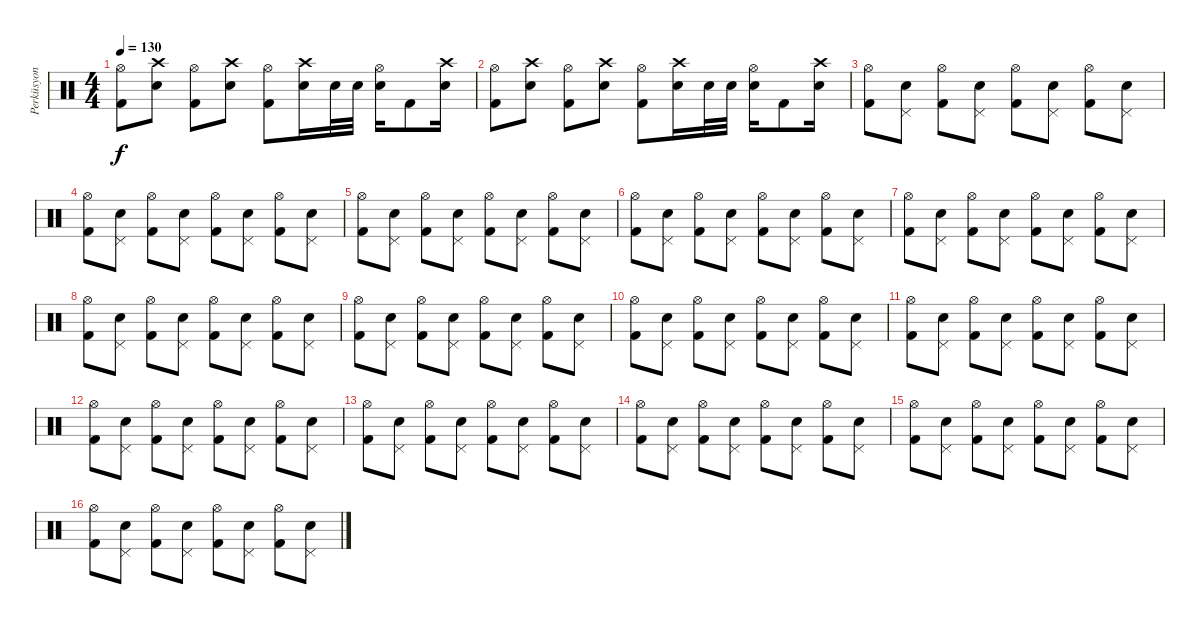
\track ("Perküsyon" "Perküsyon") {instrument percussion}
\staff {score}
\articulation defaults
\ts (4 4)
\tempo 130
\clef neutral
\ks c
("Hi-Hat (open)" "Kick (hit) 2").8{dy f} ("Crash high (hit)" "Electric Snare (hit)").8 ("Hi-Hat (open)" "Kick (hit) 2").8 ("Crash high (hit)" "Electric Snare (hit)").8 ("Hi-Hat (open)" "Kick (hit) 2").8 ("Crash high (hit)" "Electric Snare (hit)").16 "Electric Snare (hit)".32 "Electric Snare (hit)".32 ("Hi-Hat (open)" "Electric Snare (hit)").16 "Kick (hit) 2".8 ("Crash high (hit)" "Electric Snare (hit)").16 |
("Hi-Hat (open)" "Kick (hit) 2").8 ("Crash high (hit)" "Electric Snare (hit)").8 ("Hi-Hat (open)" "Kick (hit) 2").8 ("Crash high (hit)" "Electric Snare (hit)").8 ("Hi-Hat (open)" "Kick (hit) 2").8 ("Crash high (hit)" "Electric Snare (hit)").16 "Electric Snare (hit)".32 "Electric Snare (hit)".32 ("Hi-Hat (open)" "Electric Snare (hit)").16 "Kick (hit) 2".8 ("Crash high (hit)" "Electric Snare (hit)").16 |
("Hi-Hat (open)" "Kick (hit) 2").8 ("Pedal Hi-Hat (hit)" "Electric Snare (hit)").8 ("Hi-Hat (open)" "Kick (hit) 2").8 ("Pedal Hi-Hat (hit)" "Electric Snare (hit)").8 ("Hi-Hat (open)" "Kick (hit) 2").8 ("Pedal Hi-Hat (hit)" "Electric Snare (hit)").8 ("Hi-Hat (open)" "Kick (hit) 2").8 ("Pedal Hi-Hat (hit)" "Electric Snare (hit)").8 |
("Hi-Hat (open)" "Kick (hit) 2").8 ("Pedal Hi-Hat (hit)" "Electric Snare (hit)").8 ("Hi-Hat (open)" "Kick (hit) 2").8 ("Pedal Hi-Hat (hit)" "Electric Snare (hit)").8 ("Hi-Hat (open)" "Kick (hit) 2").8 ("Pedal Hi-Hat (hit)" "Electric Snare (hit)").8 ("Hi-Hat (open)" "Kick (hit) 2").8 ("Pedal Hi-Hat (hit)" "Electric Snare (hit)").8 |
("Hi-Hat (open)" "Kick (hit) 2").8 ("Pedal Hi-Hat (hit)" "Electric Snare (hit)").8 ("Hi-Hat (open)" "Kick (hit) 2").8 ("Pedal Hi-Hat (hit)" "Electric Snare (hit)").8 ("Hi-Hat (open)" "Kick (hit) 2").8 ("Pedal Hi-Hat (hit)" "Electric Snare (hit)").8 ("Hi-Hat (open)" "Kick (hit) 2").8 ("Pedal Hi-Hat (hit)" "Electric Snare (hit)").8 |
("Hi-Hat (open)" "Kick (hit) 2").8 ("Pedal Hi-Hat (hit)" "Electric Snare (hit)").8 ("Hi-Hat (open)" "Kick (hit) 2").8 ("Pedal Hi-Hat (hit)" "Electric Snare (hit)").8 ("Hi-Hat (open)" "Kick (hit) 2").8 ("Pedal Hi-Hat (hit)" "Electric Snare (hit)").8 ("Hi-Hat (open)" "Kick (hit) 2").8 ("Pedal Hi-Hat (hit)" "Electric Snare (hit)").8 |
("Hi-Hat (open)" "Kick (hit) 2").8 ("Pedal Hi-Hat (hit)" "Electric Snare (hit)").8 ("Hi-Hat (open)" "Kick (hit) 2").8 ("Pedal Hi-Hat (hit)" "Electric Snare (hit)").8 ("Hi-Hat (open)" "Kick (hit) 2").8 ("Pedal Hi-Hat (hit)" "Electric Snare (hit)").8 ("Hi-Hat (open)" "Kick (hit) 2").8 ("Pedal Hi-Hat (hit)" "Electric Snare (hit)").8 |
("Hi-Hat (open)" "Kick (hit) 2").8 ("Pedal Hi-Hat (hit)" "Electric Snare (hit)").8 ("Hi-Hat (open)" "Kick (hit) 2").8 ("Pedal Hi-Hat (hit)" "Electric Snare (hit)").8 ("Hi-Hat (open)" "Kick (hit) 2").8 ("Pedal Hi-Hat (hit)" "Electric Snare (hit)").8 ("Hi-Hat (open)" "Kick (hit) 2").8 ("Pedal Hi-Hat (hit)" "Electric Snare (hit)").8 |
("Hi-Hat (open)" "Kick (hit) 2").8 ("Pedal Hi-Hat (hit)" "Electric Snare (hit)").8 ("Hi-Hat (open)" "Kick (hit) 2").8 ("Pedal Hi-Hat (hit)" "Electric Snare (hit)").8 ("Hi-Hat (open)" "Kick (hit) 2").8 ("Pedal Hi-Hat (hit)" "Electric Snare (hit)").8 ("Hi-Hat (open)" "Kick (hit) 2").8 ("Pedal Hi-Hat (hit)" "Electric Snare (hit)").8 |
("Hi-Hat (open)" "Kick (hit) 2").8 ("Pedal Hi-Hat (hit)" "Electric Snare (hit)").8 ("Hi-Hat (open)" "Kick (hit) 2").8 ("Pedal Hi-Hat (hit)" "Electric Snare (hit)").8 ("Hi-Hat (open)" "Kick (hit) 2").8 ("Pedal Hi-Hat (hit)" "Electric Snare (hit)").8 ("Hi-Hat (open)" "Kick (hit) 2").8 ("Pedal Hi-Hat (hit)" "Electric Snare (hit)").8 |
("Hi-Hat (open)" "Kick (hit) 2").8 ("Pedal Hi-Hat (hit)" "Electric Snare (hit)").8 ("Hi-Hat (open)" "Kick (hit) 2").8 ("Pedal Hi-Hat (hit)" "Electric Snare (hit)").8 ("Hi-Hat (open)" "Kick (hit) 2").8 ("Pedal Hi-Hat (hit)" "Electric Snare (hit)").8 ("Hi-Hat (open)" "Kick (hit) 2").8 ("Pedal Hi-Hat (hit)" "Electric Snare (hit)").8 |
("Hi-Hat (open)" "Kick (hit) 2").8 ("Pedal Hi-Hat (hit)" "Electric Snare (hit)").8 ("Hi-Hat (open)" "Kick (hit) 2").8 ("Pedal Hi-Hat (hit)" "Electric Snare (hit)").8 ("Hi-Hat (open)" "Kick (hit) 2").8 ("Pedal Hi-Hat (hit)" "Electric Snare (hit)").8 ("Hi-Hat (open)" "Kick (hit) 2").8 ("Pedal Hi-Hat (hit)" "Electric Snare (hit)").8 |
("Hi-Hat (open)" "Kick (hit) 2").8 ("Pedal Hi-Hat (hit)" "Electric Snare (hit)").8 ("Hi-Hat (open)" "Kick (hit) 2").8 ("Pedal Hi-Hat (hit)" "Electric Snare (hit)").8 ("Hi-Hat (open)" "Kick (hit) 2").8 ("Pedal Hi-Hat (hit)" "Electric Snare (hit)").8 ("Hi-Hat (open)" "Kick (hit) 2").8 ("Pedal Hi-Hat (hit)" "Electric Snare (hit)").8 |
("Hi-Hat (open)" "Kick (hit) 2").8 ("Pedal Hi-Hat (hit)" "Electric Snare (hit)").8 ("Hi-Hat (open)" "Kick (hit) 2").8 ("Pedal Hi-Hat (hit)" "Electric Snare (hit)").8 ("Hi-Hat (open)" "Kick (hit) 2").8 ("Pedal Hi-Hat (hit)" "Electric Snare (hit)").8 ("Hi-Hat (open)" "Kick (hit) 2").8 ("Pedal Hi-Hat (hit)" "Electric Snare (hit)").8 |
("Hi-Hat (open)" "Kick (hit) 2").8 ("Pedal Hi-Hat (hit)" "Electric Snare (hit)").8 ("Hi-Hat (open)" "Kick (hit) 2").8 ("Pedal Hi-Hat (hit)" "Electric Snare (hit)").8 ("Hi-Hat (open)" "Kick (hit) 2").8 ("Pedal Hi-Hat (hit)" "Electric Snare (hit)").8 ("Hi-Hat (open)" "Kick (hit) 2").8 ("Pedal Hi-Hat (hit)" "Electric Snare (hit)").8 |
("Hi-Hat (open)" "Kick (hit) 2").8 ("Pedal Hi-Hat (hit)" "Electric Snare (hit)").8 ("Hi-Hat (open)" "Kick (hit) 2").8 ("Pedal Hi-Hat (hit)" "Electric Snare (hit)").8 ("Hi-Hat (open)" "Kick (hit) 2").8 ("Pedal Hi-Hat (hit)" "Electric Snare (hit)").8 ("Hi-Hat (open)" "Kick (hit) 2").8 ("Pedal Hi-Hat (hit)" "Electric Snare (hit)").8
